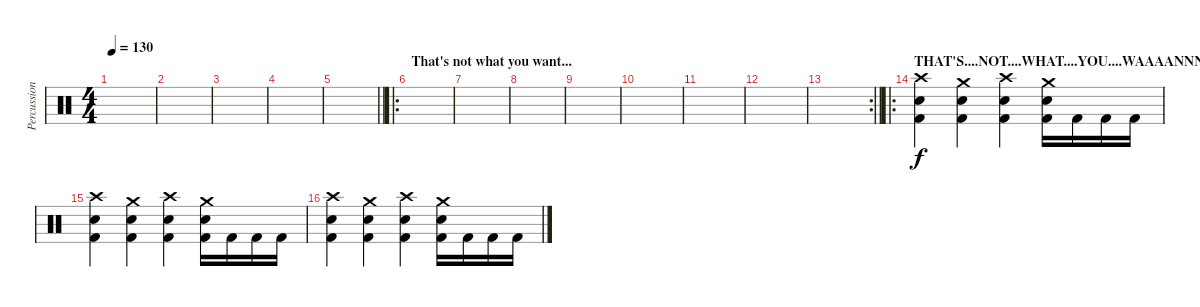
\track ("Percussion" "Percussion") {instrument percussion}
\staff {score}
\articulation defaults
\ts (4 4)
\tempo 130
\clef neutral
\ks c
|
|
|
|
\barLineRight lightlight
|
\ro
\section ("" "That's not what you want...")
|
|
|
|
|
|
|
\rc 2
\barLineRight lightlight
|
\ro
\section ("" "THAT'S....NOT....WHAT....YOU....WAAAANNNNTTT!")
("Crash high (hit)" "Snare (hit) 2" "Kick (hit) 2").4 ("Crash medium (hit)" "Snare (hit) 2" "Kick (hit) 2").4 ("Crash high (hit)" "Snare (hit) 2" "Kick (hit) 2").4 ("Crash medium (hit)" "Snare (hit) 2" "Kick (hit) 2").16 "Kick (hit) 2".16 "Kick (hit) 2".16 "Kick (hit) 2".16 |
("Crash high (hit)" "Snare (hit) 2" "Kick (hit) 2").4 ("Crash medium (hit)" "Snare (hit) 2" "Kick (hit) 2").4 ("Crash high (hit)" "Snare (hit) 2" "Kick (hit) 2").4 ("Crash medium (hit)" "Snare (hit) 2" "Kick (hit) 2").16 "Kick (hit) 2".16 "Kick (hit) 2".16 "Kick (hit) 2".16 |
("Crash high (hit)" "Snare (hit) 2" "Kick (hit) 2").4 ("Crash medium (hit)" "Snare (hit) 2" "Kick (hit) 2").4 ("Crash high (hit)" "Snare (hit) 2" "Kick (hit) 2").4 ("Crash medium (hit)" "Snare (hit) 2" "Kick (hit) 2").16 "Kick (hit) 2".16 "Kick (hit) 2".16 "Kick (hit) 2".16
